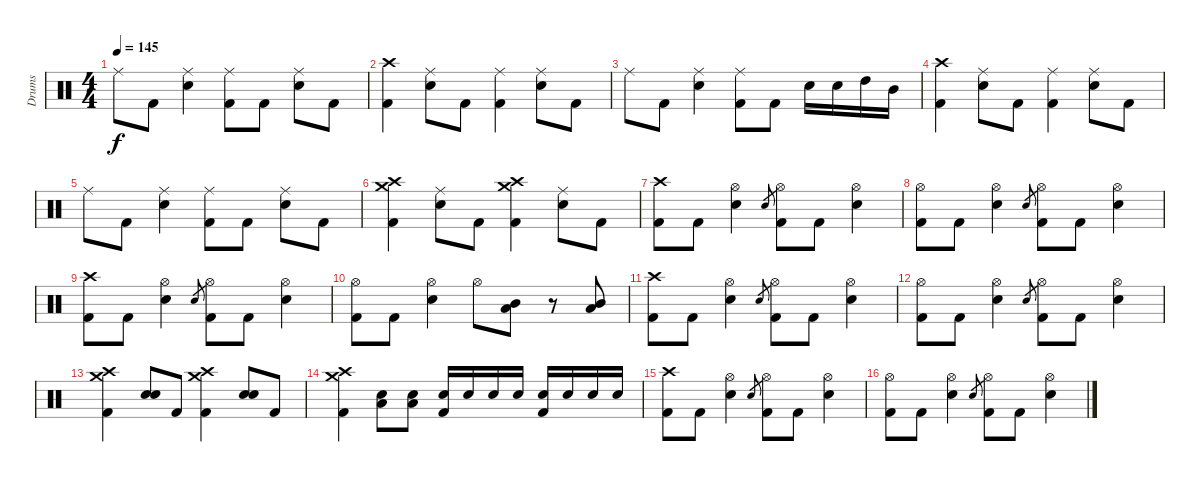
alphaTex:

\track ("Drums" "Drums") {instrument percussion}
\staff {score}
\articulation defaults
\ts (4 4)
\tempo 145
\clef neutral
\ks c "Ride (middle)".8{dy f} "Kick (hit) 2".8
("Electric Snare (hit)" "Ride (middle)").4 ("Kick (hit) 2" "Ride (middle)").8 "Kick (hit) 2".8 ("Electric Snare (hit)" "Ride (middle)").8 "Kick (hit) 2".8 |
("Kick (hit) 2" "Crash high (hit)").4 ("Electric Snare (hit)" "Ride (middle)").8 "Kick (hit) 2".8 ("Kick (hit) 2" "Ride (middle)").4 ("Electric Snare (hit)" "Ride (middle)").8 "Kick (hit) 2".8 |
"Ride (middle)".8 "Kick (hit) 2".8 ("Electric Snare (hit)" "Ride (middle)").4 ("Kick (hit) 2" "Ride (middle)").8 "Kick (hit) 2".8 "Electric Snare (hit)".16 "Electric Snare (hit)".16 "High Tom (hit)".16 "Mid Tom (hit)".16 |
("Kick (hit) 2" "Crash high (hit)").4 ("Electric Snare (hit)" "Ride (middle)").8 "Kick (hit) 2".8 ("Kick (hit) 2" "Ride (middle)").4 ("Electric Snare (hit)" "Ride (middle)").8 "Kick (hit) 2".8 |
"Ride (middle)".8 "Kick (hit) 2".8 ("Electric Snare (hit)" "Ride (middle)").4 ("Kick (hit) 2" "Ride (middle)").8 "Kick (hit) 2".8 ("Electric Snare (hit)" "Ride (middle)").8 "Kick (hit) 2".8 |
("Kick (hit) 2" "Crash high (hit)" "Crash medium (hit)").4 ("Electric Snare (hit)" "Ride (middle)").8 "Kick (hit) 2".8 ("Kick (hit) 2" "Crash high (hit)" "Crash medium (hit)").4 ("Electric Snare (hit)" "Ride (middle)").8 "Kick (hit) 2".8 |
("Kick (hit) 2" "Crash high (hit)").8 "Kick (hit) 2".8 ("Electric Snare (hit)" "Hi-Hat (open)").4 "Electric Snare (hit)".8{gr} ("Kick (hit) 2" "Hi-Hat (open)").8 "Kick (hit) 2".8 ("Electric Snare (hit)" "Hi-Hat (open)").4 |
("Kick (hit) 2" "Hi-Hat (open)").8 "Kick (hit) 2".8 ("Electric Snare (hit)" "Hi-Hat (open)").4 "Electric Snare (hit)".8{gr} ("Kick (hit) 2" "Hi-Hat (open)").8 "Kick (hit) 2".8 ("Electric Snare (hit)" "Hi-Hat (open)").4 |
("Kick (hit) 2" "Crash high (hit)").8 "Kick (hit) 2".8 ("Electric Snare (hit)" "Hi-Hat (open)").4 "Electric Snare (hit)".8{gr} ("Kick (hit) 2" "Hi-Hat (open)").8 "Kick (hit) 2".8 ("Electric Snare (hit)" "Hi-Hat (open)").4 |
("Kick (hit) 2" "Hi-Hat (open)").8 "Kick (hit) 2".8 ("Electric Snare (hit)" "Hi-Hat (open)").4 "Hi-Hat (open)".8 ("Low Tom (hit)" "Mid Tom (hit)").8 r.8 ("Low Tom (hit)" "Mid Tom (hit)").8 |
("Kick (hit) 2" "Crash high (hit)").8 "Kick (hit) 2".8 ("Electric Snare (hit)" "Hi-Hat (open)").4 "Electric Snare (hit)".8{gr} ("Kick (hit) 2" "Hi-Hat (open)").8 "Kick (hit) 2".8 ("Electric Snare (hit)" "Hi-Hat (open)").4 |
("Kick (hit) 2" "Hi-Hat (open)").8 "Kick (hit) 2".8 ("Electric Snare (hit)" "Hi-Hat (open)").4 "Electric Snare (hit)".8{gr} ("Kick (hit) 2" "Hi-Hat (open)").8 "Kick (hit) 2".8 ("Electric Snare (hit)" "Hi-Hat (open)").4 |
("Kick (hit) 2" "Crash high (hit)" "Crash medium (hit)").4 ("Electric Snare (hit)" "Electric Snare (hit)").8 "Kick (hit) 2".8 ("Kick (hit) 2" "Crash high (hit)" "Crash medium (hit)").4 ("Electric Snare (hit)" "Electric Snare (hit)").8 "Kick (hit) 2".8 |
("Kick (hit) 2" "Crash high (hit)" "Crash medium (hit)").4 ("Electric Snare (hit)" "Low Tom (hit)").8 ("Electric Snare (hit)" "Low Tom (hit)").8 ("Electric Snare (hit)" "Kick (hit) 2").16 "Electric Snare (hit)".16 "Electric Snare (hit)".16 "Electric Snare (hit)".16 ("Electric Snare (hit)" "Kick (hit) 2").16 "Electric Snare (hit)".16 "Electric Snare (hit)".16 "Electric Snare (hit)".16 |
("Kick (hit) 2" "Crash high (hit)").8 "Kick (hit) 2".8 ("Electric Snare (hit)" "Hi-Hat (open)").4 "Electric Snare (hit)".8{gr} ("Kick (hit) 2" "Hi-Hat (open)").8 "Kick (hit) 2".8 ("Electric Snare (hit)" "Hi-Hat (open)").4 |
("Kick (hit) 2" "Hi-Hat (open)").8 "Kick (hit) 2".8 ("Electric Snare (hit)" "Hi-Hat (open)").4 "Electric Snare (hit)".8{gr} ("Kick (hit) 2" "Hi-Hat (open)").8 "Kick (hit) 2".8 ("Electric Snare (hit)" "Hi-Hat (open)").4
